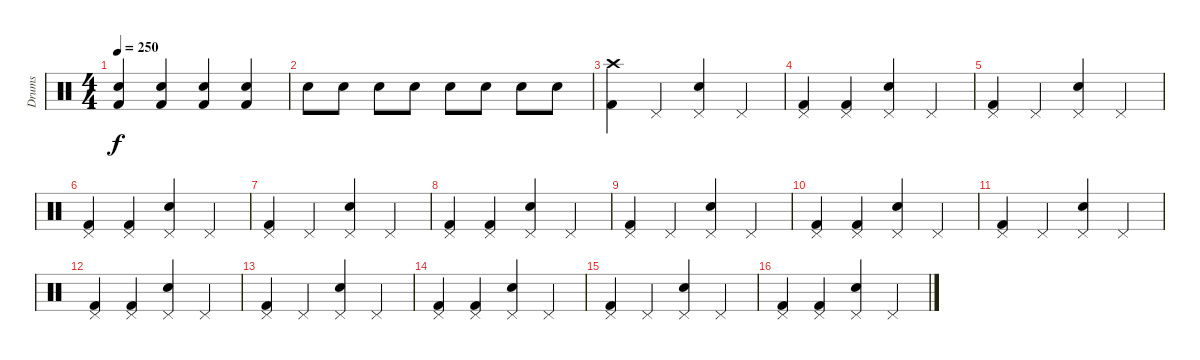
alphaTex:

\track ("Drums" "Drums") {instrument percussion}
\staff {score}
\articulation defaults
\ts (4 4)
\tempo 250
\clef neutral
\ks c
("Kick (hit) 2" "Electric Snare (hit)").4{dy f} ("Kick (hit) 2" "Electric Snare (hit)").4 ("Kick (hit) 2" "Electric Snare (hit)").4 ("Kick (hit) 2" "Electric Snare (hit)").4 |
"Electric Snare (hit)".8 "Electric Snare (hit)".8 "Electric Snare (hit)".8 "Electric Snare (hit)".8 "Electric Snare (hit)".8 "Electric Snare (hit)".8 "Electric Snare (hit)".8 "Electric Snare (hit)".8 |
("Kick (hit) 2" "Crash high (hit)").4 "Pedal Hi-Hat (hit)".4 ("Pedal Hi-Hat (hit)" "Electric Snare (hit)").4 "Pedal Hi-Hat (hit)".4 |
("Pedal Hi-Hat (hit)" "Kick (hit) 2").4 ("Pedal Hi-Hat (hit)" "Kick (hit) 2").4 ("Pedal Hi-Hat (hit)" "Electric Snare (hit)").4 "Pedal Hi-Hat (hit)".4 |
("Pedal Hi-Hat (hit)" "Kick (hit) 2").4 "Pedal Hi-Hat (hit)".4 ("Pedal Hi-Hat (hit)" "Electric Snare (hit)").4 "Pedal Hi-Hat (hit)".4 |
("Pedal Hi-Hat (hit)" "Kick (hit) 2").4 ("Pedal Hi-Hat (hit)" "Kick (hit) 2").4 ("Pedal Hi-Hat (hit)" "Electric Snare (hit)").4 "Pedal Hi-Hat (hit)".4 |
("Pedal Hi-Hat (hit)" "Kick (hit) 2").4 "Pedal Hi-Hat (hit)".4 ("Pedal Hi-Hat (hit)" "Electric Snare (hit)").4 "Pedal Hi-Hat (hit)".4 |
("Pedal Hi-Hat (hit)" "Kick (hit) 2").4 ("Pedal Hi-Hat (hit)" "Kick (hit) 2").4 ("Pedal Hi-Hat (hit)" "Electric Snare (hit)").4 "Pedal Hi-Hat (hit)".4 |
("Pedal Hi-Hat (hit)" "Kick (hit) 2").4 "Pedal Hi-Hat (hit)".4 ("Pedal Hi-Hat (hit)" "Electric Snare (hit)").4 "Pedal Hi-Hat (hit)".4 |
("Pedal Hi-Hat (hit)" "Kick (hit) 2").4 ("Pedal Hi-Hat (hit)" "Kick (hit) 2").4 ("Pedal Hi-Hat (hit)" "Electric Snare (hit)").4 "Pedal Hi-Hat (hit)".4 |
("Pedal Hi-Hat (hit)" "Kick (hit) 2").4 "Pedal Hi-Hat (hit)".4 ("Pedal Hi-Hat (hit)" "Electric Snare (hit)").4 "Pedal Hi-Hat (hit)".4 |
("Pedal Hi-Hat (hit)" "Kick (hit) 2").4 ("Pedal Hi-Hat (hit)" "Kick (hit) 2").4 ("Pedal Hi-Hat (hit)" "Electric Snare (hit)").4 "Pedal Hi-Hat (hit)".4 |
("Pedal Hi-Hat (hit)" "Kick (hit) 2").4 "Pedal Hi-Hat (hit)".4 ("Pedal Hi-Hat (hit)" "Electric Snare (hit)").4 "Pedal Hi-Hat (hit)".4 |
("Pedal Hi-Hat (hit)" "Kick (hit) 2").4 ("Pedal Hi-Hat (hit)" "Kick (hit) 2").4 ("Pedal Hi-Hat (hit)" "Electric Snare (hit)").4 "Pedal Hi-Hat (hit)".4 |
("Pedal Hi-Hat (hit)" "Kick (hit) 2").4 "Pedal Hi-Hat (hit)".4 ("Pedal Hi-Hat (hit)" "Electric Snare (hit)").4 "Pedal Hi-Hat (hit)".4 |
("Pedal Hi-Hat (hit)" "Kick (hit) 2").4 ("Pedal Hi-Hat (hit)" "Kick (hit) 2").4 ("Pedal Hi-Hat (hit)" "Electric Snare (hit)").4 "Pedal Hi-Hat (hit)".4
